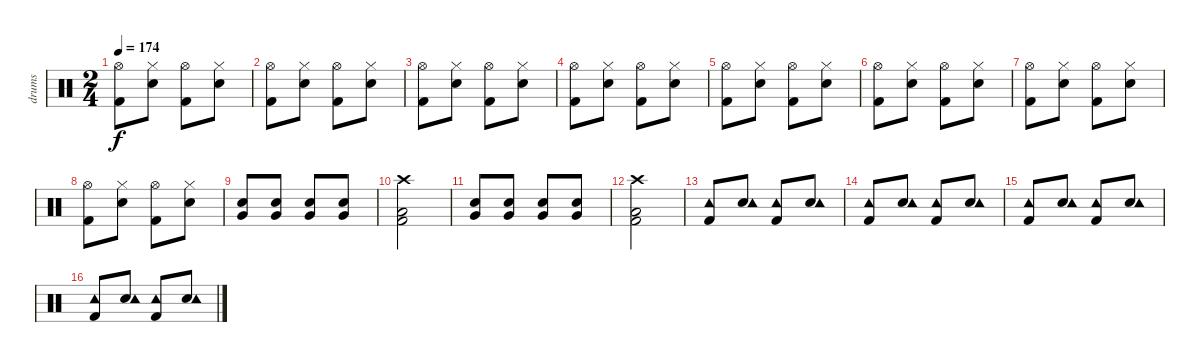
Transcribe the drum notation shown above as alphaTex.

\track ("drums" "drums") {instrument percussion}
\staff {score}
\articulation defaults
\ts (2 4)
\tempo 174
\clef neutral
\ks c
("Hi-Hat (open)" "Kick (hit) 2").8{dy f} ("Snare (hit) 2" "Hi-Hat (closed)").8 ("Kick (hit) 2" "Hi-Hat (open)").8 ("Snare (hit) 2" "Hi-Hat (closed)").8 |
("Kick (hit) 2" "Hi-Hat (open)").8 ("Snare (hit) 2" "Hi-Hat (closed)").8 ("Kick (hit) 2" "Hi-Hat (open)").8 ("Snare (hit) 2" "Hi-Hat (closed)").8 |
("Kick (hit) 2" "Hi-Hat (open)").8 ("Snare (hit) 2" "Hi-Hat (closed)").8 ("Kick (hit) 2" "Hi-Hat (open)").8 ("Snare (hit) 2" "Hi-Hat (closed)").8 |
("Kick (hit) 2" "Hi-Hat (open)").8 ("Snare (hit) 2" "Hi-Hat (closed)").8 ("Kick (hit) 2" "Hi-Hat (open)").8 ("Snare (hit) 2" "Hi-Hat (closed)").8 |
("Hi-Hat (open)" "Kick (hit) 2").8 ("Snare (hit) 2" "Hi-Hat (closed)").8 ("Kick (hit) 2" "Hi-Hat (open)").8 ("Snare (hit) 2" "Hi-Hat (closed)").8 |
("Kick (hit) 2" "Hi-Hat (open)").8 ("Snare (hit) 2" "Hi-Hat (closed)").8 ("Kick (hit) 2" "Hi-Hat (open)").8 ("Snare (hit) 2" "Hi-Hat (closed)").8 |
("Kick (hit) 2" "Hi-Hat (open)").8 ("Snare (hit) 2" "Hi-Hat (closed)").8 ("Kick (hit) 2" "Hi-Hat (open)").8 ("Snare (hit) 2" "Hi-Hat (closed)").8 |
("Kick (hit) 2" "Hi-Hat (open)").8 ("Snare (hit) 2" "Hi-Hat (closed)").8 ("Kick (hit) 2" "Hi-Hat (open)").8 ("Snare (hit) 2" "Hi-Hat (closed)").8 |
("Snare (hit) 2" "Very Low Tom (hit)").8 ("Snare (hit) 2" "Very Low Tom (hit)").8 ("Snare (hit) 2" "Very Low Tom (hit)").8 ("Snare (hit) 2" "Very Low Tom (hit)").8 |
("Kick (hit) 2" "Low Floor Tom (hit)" "Crash high (hit)").2 |
("Very Low Tom (hit)" "Snare (hit) 2").8 ("Snare (hit) 2" "Very Low Tom (hit)").8 ("Snare (hit) 2" "Very Low Tom (hit)").8 ("Snare (hit) 2" "Very Low Tom (hit)").8 |
("Crash high (hit)" "Low Floor Tom (hit)" "Kick (hit) 2").2 |
("Tambourine (hit)" "Kick (hit) 2").8 ("Snare (hit) 2" "Tambourine (hit)").8 ("Kick (hit) 2" "Tambourine (hit)").8 ("Snare (hit) 2" "Tambourine (hit)").8 |
("Tambourine (hit)" "Kick (hit) 2").8 ("Snare (hit) 2" "Tambourine (hit)").8 ("Kick (hit) 2" "Tambourine (hit)").8 ("Snare (hit) 2" "Tambourine (hit)").8 |
("Tambourine (hit)" "Kick (hit) 2").8 ("Snare (hit) 2" "Tambourine (hit)").8 ("Kick (hit) 2" "Tambourine (hit)").8 ("Snare (hit) 2" "Tambourine (hit)").8 |
("Tambourine (hit)" "Kick (hit) 2").8 ("Snare (hit) 2" "Tambourine (hit)").8 ("Kick (hit) 2" "Tambourine (hit)").8 ("Snare (hit) 2" "Tambourine (hit)").8
